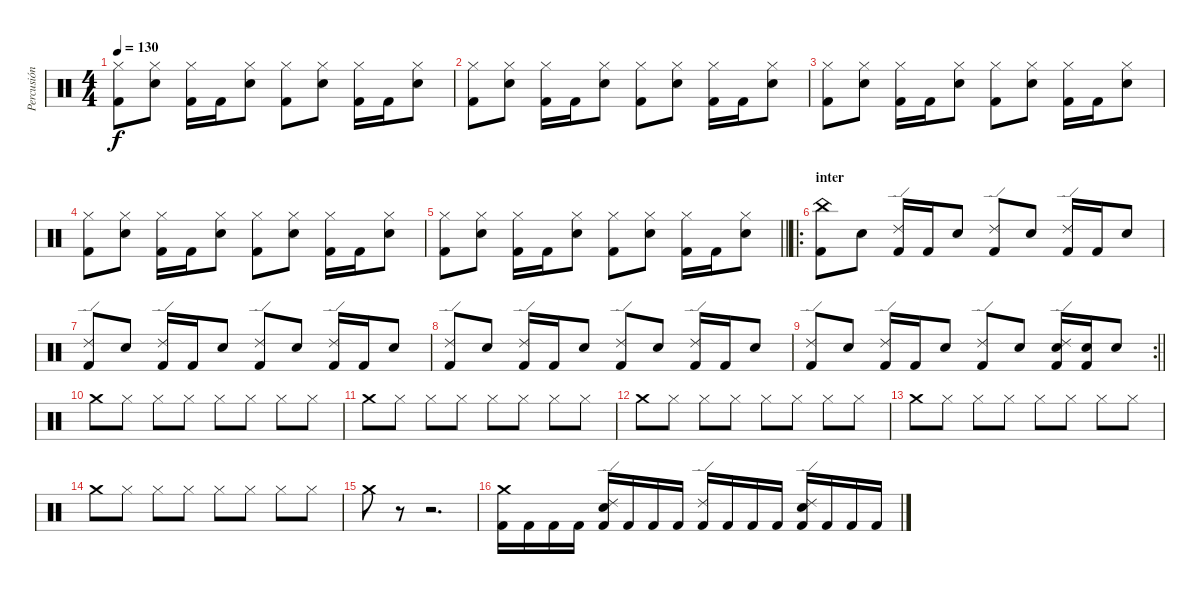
\track ("Percusión" "Percusión") {instrument percussion}
\staff {score}
\articulation defaults
\ts (4 4)
\tempo 130
\clef neutral
\ks c
("Hi-Hat (closed)" "Kick (hit) 2").8{dy f} ("Hi-Hat (closed)" "Electric Snare (hit)").8 ("Hi-Hat (closed)" "Kick (hit) 2").16 "Kick (hit) 2".16 ("Hi-Hat (closed)" "Electric Snare (hit)").8 ("Hi-Hat (closed)" "Kick (hit) 2").8 ("Hi-Hat (closed)" "Electric Snare (hit)").8 ("Hi-Hat (closed)" "Kick (hit) 2").16 "Kick (hit) 2".16 ("Hi-Hat (closed)" "Electric Snare (hit)").8 |
("Hi-Hat (closed)" "Kick (hit) 2").8 ("Hi-Hat (closed)" "Electric Snare (hit)").8 ("Hi-Hat (closed)" "Kick (hit) 2").16 "Kick (hit) 2".16 ("Hi-Hat (closed)" "Electric Snare (hit)").8 ("Hi-Hat (closed)" "Kick (hit) 2").8 ("Hi-Hat (closed)" "Electric Snare (hit)").8 ("Hi-Hat (closed)" "Kick (hit) 2").16 "Kick (hit) 2".16 ("Hi-Hat (closed)" "Electric Snare (hit)").8 |
("Hi-Hat (closed)" "Kick (hit) 2").8 ("Hi-Hat (closed)" "Electric Snare (hit)").8 ("Hi-Hat (closed)" "Kick (hit) 2").16 "Kick (hit) 2".16 ("Hi-Hat (closed)" "Electric Snare (hit)").8 ("Hi-Hat (closed)" "Kick (hit) 2").8 ("Hi-Hat (closed)" "Electric Snare (hit)").8 ("Hi-Hat (closed)" "Kick (hit) 2").16 "Kick (hit) 2".16 ("Hi-Hat (closed)" "Electric Snare (hit)").8 |
("Hi-Hat (closed)" "Kick (hit) 2").8 ("Hi-Hat (closed)" "Electric Snare (hit)").8 ("Hi-Hat (closed)" "Kick (hit) 2").16 "Kick (hit) 2".16 ("Hi-Hat (closed)" "Electric Snare (hit)").8 ("Hi-Hat (closed)" "Kick (hit) 2").8 ("Hi-Hat (closed)" "Electric Snare (hit)").8 ("Hi-Hat (closed)" "Kick (hit) 2").16 "Kick (hit) 2".16 ("Hi-Hat (closed)" "Electric Snare (hit)").8 |
\barLineRight lightlight
("Hi-Hat (closed)" "Kick (hit) 2").8 ("Hi-Hat (closed)" "Electric Snare (hit)").8 ("Hi-Hat (closed)" "Kick (hit) 2").16 "Kick (hit) 2".16 ("Hi-Hat (closed)" "Electric Snare (hit)").8 ("Hi-Hat (closed)" "Kick (hit) 2").8 ("Hi-Hat (closed)" "Electric Snare (hit)").8 ("Hi-Hat (closed)" "Kick (hit) 2").16 "Kick (hit) 2".16 ("Hi-Hat (closed)" "Electric Snare (hit)").8 |
\ro
\section ("" "inter")
("China (hit)" "Kick (hit) 2").8 "Electric Snare (hit)".8 ("Ride (edge) 2" "Kick (hit) 2").16 "Kick (hit) 2".16 "Electric Snare (hit)".8 ("Ride (edge) 2" "Kick (hit) 2").8 "Electric Snare (hit)".8 ("Ride (edge) 2" "Kick (hit) 2").16 "Kick (hit) 2".16 "Electric Snare (hit)".8 |
("Ride (edge) 2" "Kick (hit) 2").8 "Electric Snare (hit)".8 ("Ride (edge) 2" "Kick (hit) 2").16 "Kick (hit) 2".16 "Electric Snare (hit)".8 ("Ride (edge) 2" "Kick (hit) 2").8 "Electric Snare (hit)".8 ("Ride (edge) 2" "Kick (hit) 2").16 "Kick (hit) 2".16 "Electric Snare (hit)".8 |
("Ride (edge) 2" "Kick (hit) 2").8 "Electric Snare (hit)".8 ("Ride (edge) 2" "Kick (hit) 2").16 "Kick (hit) 2".16 "Electric Snare (hit)".8 ("Ride (edge) 2" "Kick (hit) 2").8 "Electric Snare (hit)".8 ("Ride (edge) 2" "Kick (hit) 2").16 "Kick (hit) 2".16 "Electric Snare (hit)".8 |
\rc 2
\barLineRight lightlight
("Ride (edge) 2" "Kick (hit) 2").8 "Electric Snare (hit)".8 ("Ride (edge) 2" "Kick (hit) 2").16 "Kick (hit) 2".16 "Electric Snare (hit)".8 ("Ride (edge) 2" "Kick (hit) 2").8 "Electric Snare (hit)".8 ("Ride (edge) 2" "Electric Snare (hit)" "Kick (hit) 2").16 ("Electric Snare (hit)" "Kick (hit) 2").16 "Electric Snare (hit)".8 |
"Crash medium (hit)".8 "Hi-Hat (closed)".8 "Hi-Hat (closed)".8 "Hi-Hat (closed)".8 "Hi-Hat (closed)".8 "Hi-Hat (closed)".8 "Hi-Hat (closed)".8 "Hi-Hat (closed)".8 |
"Crash medium (hit)".8 "Hi-Hat (closed)".8 "Hi-Hat (closed)".8 "Hi-Hat (closed)".8 "Hi-Hat (closed)".8 "Hi-Hat (closed)".8 "Hi-Hat (closed)".8 "Hi-Hat (closed)".8 |
"Crash medium (hit)".8 "Hi-Hat (closed)".8 "Hi-Hat (closed)".8 "Hi-Hat (closed)".8 "Hi-Hat (closed)".8 "Hi-Hat (closed)".8 "Hi-Hat (closed)".8 "Hi-Hat (closed)".8 |
"Crash medium (hit)".8 "Hi-Hat (closed)".8 "Hi-Hat (closed)".8 "Hi-Hat (closed)".8 "Hi-Hat (closed)".8 "Hi-Hat (closed)".8 "Hi-Hat (closed)".8 "Hi-Hat (closed)".8 |
"Crash medium (hit)".8 "Hi-Hat (closed)".8 "Hi-Hat (closed)".8 "Hi-Hat (closed)".8 "Hi-Hat (closed)".8 "Hi-Hat (closed)".8 "Hi-Hat (closed)".8 "Hi-Hat (closed)".8 |
"Crash medium (hit)".8 r.8 r.2{d} |
("Crash medium (hit)" "Kick (hit) 2").16 "Kick (hit) 2".16 "Kick (hit) 2".16 "Kick (hit) 2".16 ("Ride (edge) 2" "Electric Snare (hit)" "Kick (hit) 2").16 "Kick (hit) 2".16 "Kick (hit) 2".16 "Kick (hit) 2".16 ("Ride (edge) 2" "Kick (hit) 2").16 "Kick (hit) 2".16 "Kick (hit) 2".16 "Kick (hit) 2".16 ("Ride (edge) 2" "Electric Snare (hit)" "Kick (hit) 2").16 "Kick (hit) 2".16 "Kick (hit) 2".16 "Kick (hit) 2".16
